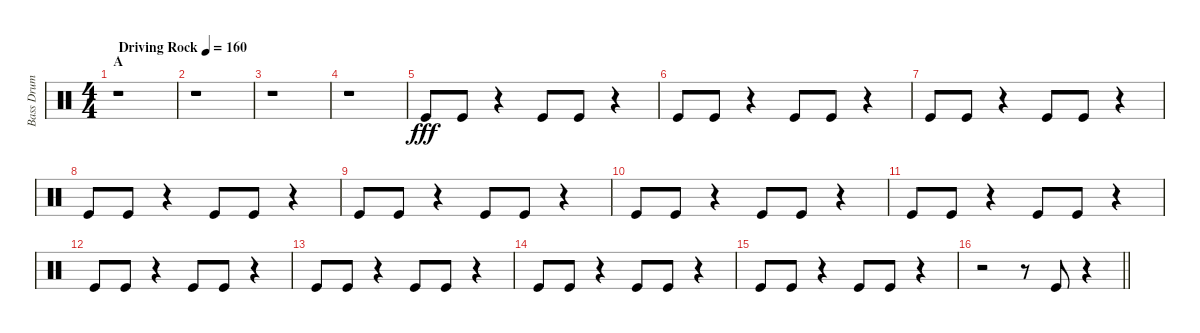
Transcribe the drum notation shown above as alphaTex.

\track ("Bass Drum" "Bass Drum") {instrument percussion}
\staff {score}
\articulation defaults
\ts (4 4)
\section ("" "A")
\tempo (160 "Driving Rock")
\clef neutral
\ks c
r.1{dy fff} |
r.1 |
r.1 |
r.1 |
"Kick (hit)".8 "Kick (hit)".8 r.4 "Kick (hit)".8 "Kick (hit)".8 r.4 |
"Kick (hit)".8 "Kick (hit)".8 r.4 "Kick (hit)".8 "Kick (hit)".8 r.4 |
"Kick (hit)".8 "Kick (hit)".8 r.4 "Kick (hit)".8 "Kick (hit)".8 r.4 |
"Kick (hit)".8 "Kick (hit)".8 r.4 "Kick (hit)".8 "Kick (hit)".8 r.4 |
"Kick (hit)".8 "Kick (hit)".8 r.4 "Kick (hit)".8 "Kick (hit)".8 r.4 |
"Kick (hit)".8 "Kick (hit)".8 r.4 "Kick (hit)".8 "Kick (hit)".8 r.4 |
"Kick (hit)".8 "Kick (hit)".8 r.4 "Kick (hit)".8 "Kick (hit)".8 r.4 |
"Kick (hit)".8 "Kick (hit)".8 r.4 "Kick (hit)".8 "Kick (hit)".8 r.4 |
"Kick (hit)".8 "Kick (hit)".8 r.4 "Kick (hit)".8 "Kick (hit)".8 r.4 |
"Kick (hit)".8 "Kick (hit)".8 r.4 "Kick (hit)".8 "Kick (hit)".8 r.4 |
"Kick (hit)".8 "Kick (hit)".8 r.4 "Kick (hit)".8 "Kick (hit)".8 r.4 |
\barLineRight lightlight
r.2 r.8 "Kick (hit)".8 r.4
